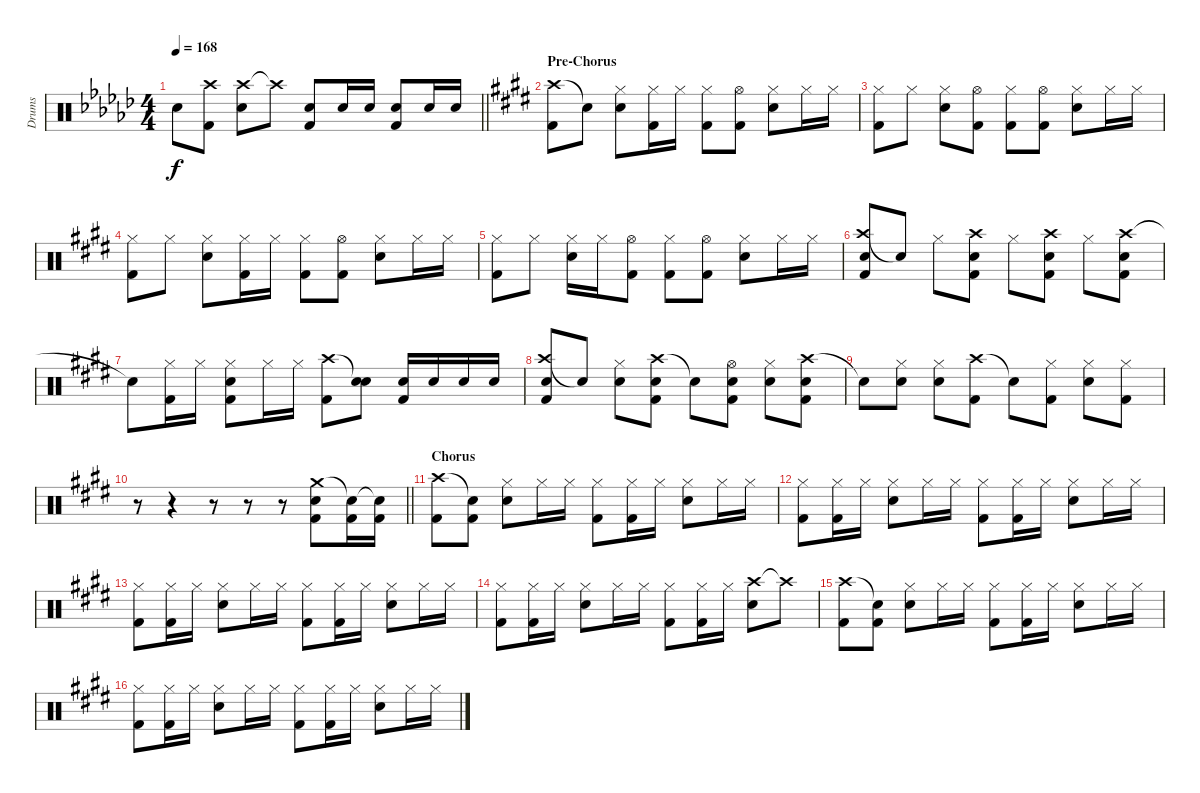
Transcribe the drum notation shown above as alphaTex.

\track ("Drums" "Drums") {instrument percussion}
\staff {score}
\articulation defaults
\ts (4 4)
\tempo 168
\clef neutral
\barLineRight lightlight
\ks gb "Snare (hit)"{t}.8{dy f}
("Crash high (hit)" "Kick (hit) 2").8 ("Crash high (hit)" "Snare (hit) 2").8 "Crash high (hit)"{t}.8 ("Snare (hit) 2" "Kick (hit) 2").8 "Snare (hit) 2".16 "Snare (hit) 2".16 ("Snare (hit) 2" "Kick (hit) 2").8 "Snare (hit) 2".16 "Snare (hit) 2".16 |
\section ("" "Pre-Chorus")
\ks e
("Crash high (hit)" "Kick (hit) 2").8 "Snare (hit)"{t}.8 ("Hi-Hat (closed)" "Snare (hit) 2").8 ("Hi-Hat (closed)" "Kick (hit) 2").16 "Hi-Hat (closed)".16 ("Hi-Hat (closed)" "Kick (hit) 2").8 ("Hi-Hat (open)" "Kick (hit) 2").8 ("Hi-Hat (closed)" "Snare (hit) 2").8 "Hi-Hat (closed)".16 "Hi-Hat (closed)".16 |
("Hi-Hat (closed)" "Kick (hit) 2").8 "Hi-Hat (closed)".8 ("Hi-Hat (closed)" "Snare (hit) 2").8 ("Hi-Hat (open)" "Kick (hit) 2").8 ("Hi-Hat (closed)" "Kick (hit) 2").8 ("Hi-Hat (open)" "Kick (hit) 2").8 ("Hi-Hat (closed)" "Snare (hit) 2").8 "Hi-Hat (closed)".16 "Hi-Hat (closed)".16 |
("Hi-Hat (closed)" "Kick (hit) 2").8 "Hi-Hat (closed)".8 ("Hi-Hat (closed)" "Snare (hit) 2").8 ("Hi-Hat (closed)" "Kick (hit) 2").16 "Hi-Hat (closed)".16 ("Hi-Hat (closed)" "Kick (hit) 2").8 ("Hi-Hat (open)" "Kick (hit) 2").8 ("Hi-Hat (closed)" "Snare (hit) 2").8 "Hi-Hat (closed)".16 "Hi-Hat (closed)".16 |
("Hi-Hat (closed)" "Kick (hit) 2").8 "Hi-Hat (closed)".8 ("Hi-Hat (closed)" "Snare (hit) 2").16 "Hi-Hat (closed)".16 ("Hi-Hat (open)" "Kick (hit) 2").8 ("Hi-Hat (closed)" "Kick (hit) 2").8 ("Hi-Hat (open)" "Kick (hit) 2").8 ("Hi-Hat (closed)" "Snare (hit) 2").8 "Hi-Hat (closed)".16 "Hi-Hat (closed)".16 |
("Crash high (hit)" "Snare (hit) 2" "Kick (hit) 2").8 "Snare (hit)"{t}.8 "Hi-Hat (closed)".8 ("Crash high (hit)" "Snare (hit) 2" "Kick (hit) 2").8 "Hi-Hat (closed)".8 ("Crash high (hit)" "Snare (hit) 2" "Kick (hit) 2").8 "Hi-Hat (closed)".8 ("Crash high (hit)" "Snare (hit) 2" "Kick (hit) 2").8 |
"Snare (hit)"{t}.8 ("Hi-Hat (closed)" "Kick (hit) 2").16 "Hi-Hat (closed)".16 ("Hi-Hat (closed)" "Snare (hit) 2" "Kick (hit) 2").8 "Hi-Hat (closed)".16 "Hi-Hat (closed)".16 ("Crash high (hit)" "Kick (hit) 2").8 ("Snare (hit)"{t} "Snare (hit) 2").8 ("Snare (hit) 2" "Kick (hit) 2").16 "Snare (hit) 2".16 "Snare (hit) 2".16 "Snare (hit) 2".16 |
("Crash high (hit)" "Snare (hit) 2" "Kick (hit) 2").8 "Snare (hit)"{t}.8 ("Hi-Hat (closed)" "Snare (hit) 2").8 ("Crash high (hit)" "Snare (hit) 2" "Kick (hit) 2").8 "Snare (hit)"{t}.8 ("Hi-Hat (open)" "Snare (hit) 2" "Kick (hit) 2").8 ("Hi-Hat (closed)" "Snare (hit) 2").8 ("Crash high (hit)" "Snare (hit) 2" "Kick (hit) 2").8 |
"Snare (hit)"{t}.8 ("Hi-Hat (closed)" "Snare (hit) 2").8 ("Hi-Hat (closed)" "Snare (hit) 2").8 ("Crash high (hit)" "Kick (hit) 2").8 "Snare (hit)"{t}.8 ("Hi-Hat (closed)" "Kick (hit) 2").8 ("Hi-Hat (closed)" "Snare (hit) 2").8 ("Hi-Hat (closed)" "Kick (hit) 2").8 |
\barLineRight lightlight
r.8 r.4 r.8 r.8 r.8 ("Crash medium (hit)" "Snare (hit) 2" "Kick (hit) 2").8 ("Snare (hit)"{t} "Kick (hit) 2").16 ("Snare (hit)"{t} "Kick (hit) 2").16 |
\section ("" "Chorus")
("Crash high (hit)" "Kick (hit) 2").8 ("Snare (hit)"{t} "Kick (hit) 2").8 ("Hi-Hat (closed)" "Snare (hit) 2").8 "Hi-Hat (closed)".16 "Hi-Hat (closed)".16 ("Hi-Hat (closed)" "Kick (hit) 2").8 ("Hi-Hat (closed)" "Kick (hit) 2").16 "Hi-Hat (closed)".16 ("Hi-Hat (closed)" "Snare (hit) 2").8 "Hi-Hat (closed)".16 "Hi-Hat (closed)".16 |
("Hi-Hat (closed)" "Kick (hit) 2").8 ("Hi-Hat (closed)" "Kick (hit) 2").16 "Hi-Hat (closed)".16 ("Hi-Hat (closed)" "Snare (hit) 2").8 "Hi-Hat (closed)".16 "Hi-Hat (closed)".16 ("Hi-Hat (closed)" "Kick (hit) 2").8 ("Hi-Hat (closed)" "Kick (hit) 2").16 "Hi-Hat (closed)".16 ("Hi-Hat (closed)" "Snare (hit) 2").8 "Hi-Hat (closed)".16 "Hi-Hat (closed)".16 |
("Hi-Hat (closed)" "Kick (hit) 2").8 ("Hi-Hat (closed)" "Kick (hit) 2").16 "Hi-Hat (closed)".16 ("Hi-Hat (closed)" "Snare (hit) 2").8 "Hi-Hat (closed)".16 "Hi-Hat (closed)".16 ("Hi-Hat (closed)" "Kick (hit) 2").8 ("Hi-Hat (closed)" "Kick (hit) 2").16 "Hi-Hat (closed)".16 ("Hi-Hat (closed)" "Snare (hit) 2").8 "Hi-Hat (closed)".16 "Hi-Hat (closed)".16 |
("Hi-Hat (closed)" "Kick (hit) 2").8 ("Hi-Hat (closed)" "Kick (hit) 2").16 "Hi-Hat (closed)".16 ("Hi-Hat (closed)" "Snare (hit) 2").8 "Hi-Hat (closed)".16 "Hi-Hat (closed)".16 ("Hi-Hat (closed)" "Kick (hit) 2").8 ("Hi-Hat (closed)" "Kick (hit) 2").16 "Hi-Hat (closed)".16 ("Crash high (hit)" "Snare (hit) 2").8 "Crash high (hit)"{t}.8 |
("Crash high (hit)" "Kick (hit) 2").8 ("Snare (hit)"{t} "Kick (hit) 2").8 ("Hi-Hat (closed)" "Snare (hit) 2").8 "Hi-Hat (closed)".16 "Hi-Hat (closed)".16 ("Hi-Hat (closed)" "Kick (hit) 2").8 ("Hi-Hat (closed)" "Kick (hit) 2").16 "Hi-Hat (closed)".16 ("Hi-Hat (closed)" "Snare (hit) 2").8 "Hi-Hat (closed)".16 "Hi-Hat (closed)".16 |
("Hi-Hat (closed)" "Kick (hit) 2").8 ("Hi-Hat (closed)" "Kick (hit) 2").16 "Hi-Hat (closed)".16 ("Hi-Hat (closed)" "Snare (hit) 2").8 "Hi-Hat (closed)".16 "Hi-Hat (closed)".16 ("Hi-Hat (closed)" "Kick (hit) 2").8 ("Hi-Hat (closed)" "Kick (hit) 2").16 "Hi-Hat (closed)".16 ("Hi-Hat (closed)" "Snare (hit) 2").8 "Hi-Hat (closed)".16 "Hi-Hat (closed)".16
